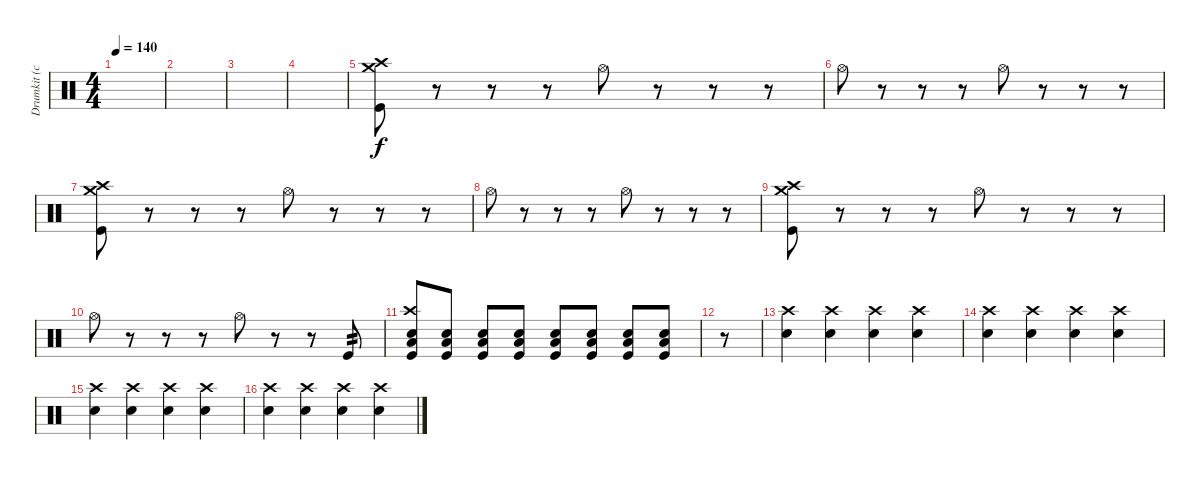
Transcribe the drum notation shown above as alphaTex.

\track ("Drumkit (cymbals)" "Drumkit (c") {instrument percussion}
\staff {score}
\articulation defaults
\ts (4 4)
\tempo 140
\clef neutral
\ks c
|
|
|
|
("Crash medium (hit)" "Kick (hit)" "Crash high (hit)").8 r.8 r.8 r.8 "Hi-Hat (open)".8 r.8 r.8 r.8 |
"Hi-Hat (open)".8 r.8 r.8 r.8 "Hi-Hat (open)".8 r.8 r.8 r.8 |
("Crash medium (hit)" "Kick (hit)" "Crash high (hit)").8 r.8 r.8 r.8 "Hi-Hat (open)".8 r.8 r.8 r.8 |
"Hi-Hat (open)".8 r.8 r.8 r.8 "Hi-Hat (open)".8 r.8 r.8 r.8 |
("Crash medium (hit)" "Kick (hit)" "Crash high (hit)").8 r.8 r.8 r.8 "Hi-Hat (open)".8 r.8 r.8 r.8 |
"Hi-Hat (open)".8 r.8 r.8 r.8 "Hi-Hat (open)".8 r.8 r.8 "Kick (hit)".8{tp 2} |
("Kick (hit)" "Snare (hit) 2" "Crash high (hit)" "Low Tom (hit)").8 ("Kick (hit)" "Snare (hit) 2" "Low Tom (hit)").8 ("Kick (hit)" "Snare (hit) 2" "Low Tom (hit)").8 ("Kick (hit)" "Snare (hit) 2" "Low Tom (hit)").8 ("Kick (hit)" "Snare (hit) 2" "Low Tom (hit)").8 ("Kick (hit)" "Snare (hit) 2" "Low Tom (hit)").8 ("Kick (hit)" "Snare (hit) 2" "Low Tom (hit)").8 ("Kick (hit)" "Snare (hit) 2" "Low Tom (hit)").8 |
r.8 |
("Crash high (hit)" "Snare (hit) 2").4 ("Crash high (hit)" "Snare (hit) 2").4 ("Crash high (hit)" "Snare (hit) 2").4 ("Crash high (hit)" "Snare (hit) 2").4 |
("Crash high (hit)" "Snare (hit) 2").4 ("Crash high (hit)" "Snare (hit) 2").4 ("Crash high (hit)" "Snare (hit) 2").4 ("Crash high (hit)" "Snare (hit) 2").4 |
("Crash high (hit)" "Snare (hit) 2").4 ("Crash high (hit)" "Snare (hit) 2").4 ("Crash high (hit)" "Snare (hit) 2").4 ("Crash high (hit)" "Snare (hit) 2").4 |
("Crash high (hit)" "Snare (hit) 2").4 ("Crash high (hit)" "Snare (hit) 2").4 ("Crash high (hit)" "Snare (hit) 2").4 ("Crash high (hit)" "Snare (hit) 2").4
